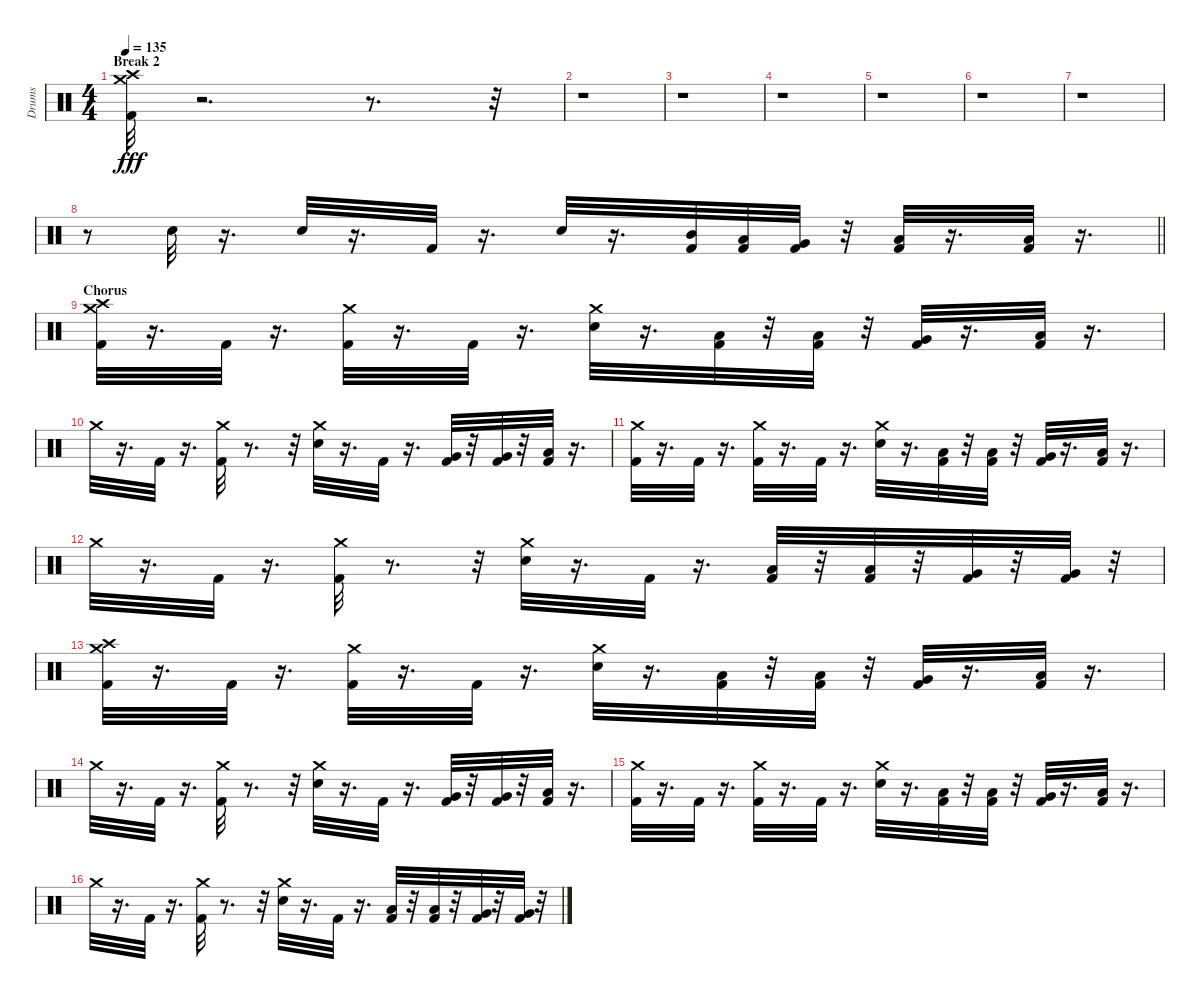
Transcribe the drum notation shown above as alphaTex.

\track ("Drums" "Drums") {instrument percussion}
\staff {score}
\articulation defaults
\ts (4 4)
\section ("" "Break 2")
\tempo 135
\clef neutral
\ks c
("Crash medium (hit)" "Crash high (hit)" "Kick (hit) 2").32{dy fff} r.2{d} r.8{d} r.32 |
r.1 |
r.1 |
r.1 |
r.1 |
r.1 |
r.1 |
\barLineRight lightlight
r.8 "Snare (hit) 2".32 r.16{d} "Snare (hit) 2".32 r.16{d} "Kick (hit) 2".32 r.16{d} "Snare (hit) 2".32 r.16{d} ("Mid Tom (hit)" "Kick (hit) 2").32 ("Low Tom (hit)" "Kick (hit) 2").32 ("Very Low Tom (hit)" "Kick (hit) 2").32 r.32 ("Low Floor Tom (hit)" "Kick (hit) 2").32 r.16{d} ("Low Floor Tom (hit)" "Kick (hit) 2").32 r.16{d} |
\section ("" "Chorus")
("Crash medium (hit)" "Crash high (hit)" "Kick (hit) 2").32 r.16{d} "Kick (hit) 2".32 r.16{d} ("Crash medium (hit)" "Kick (hit) 2").32 r.16{d} "Kick (hit) 2".32 r.16{d} ("Crash medium (hit)" "Snare (hit) 2").32 r.16{d} ("Low Tom (hit)" "Kick (hit) 2").32 r.32 ("Low Tom (hit)" "Kick (hit) 2").32 r.32 ("Very Low Tom (hit)" "Kick (hit) 2").32 r.16{d} ("Low Floor Tom (hit)" "Kick (hit) 2").32 r.16{d} |
"Crash medium (hit)".32 r.16{d} "Kick (hit) 2".32 r.16{d} ("Crash medium (hit)" "Kick (hit) 2").32 r.8{d} r.32 ("Crash medium (hit)" "Snare (hit) 2").32 r.16{d} "Kick (hit) 2".32 r.16{d} ("Very Low Tom (hit)" "Kick (hit) 2").32 r.32 ("Very Low Tom (hit)" "Kick (hit) 2").32 r.32 ("Low Floor Tom (hit)" "Kick (hit) 2").32 r.16{d} |
("Crash medium (hit)" "Kick (hit) 2").32 r.16{d} "Kick (hit) 2".32 r.16{d} ("Crash medium (hit)" "Kick (hit) 2").32 r.16{d} "Kick (hit) 2".32 r.16{d} ("Crash medium (hit)" "Snare (hit) 2").32 r.16{d} ("Low Tom (hit)" "Kick (hit) 2").32 r.32 ("Low Tom (hit)" "Kick (hit) 2").32 r.32 ("Very Low Tom (hit)" "Kick (hit) 2").32 r.16{d} ("Low Floor Tom (hit)" "Kick (hit) 2").32 r.16{d} |
"Crash medium (hit)".32 r.16{d} "Kick (hit) 2".32 r.16{d} ("Crash medium (hit)" "Kick (hit) 2").32 r.8{d} r.32 ("Crash medium (hit)" "Snare (hit) 2").32 r.16{d} "Kick (hit) 2".32 r.16{d} ("Low Tom (hit)" "Kick (hit) 2").32 r.32 ("Low Tom (hit)" "Kick (hit) 2").32 r.32 ("Very Low Tom (hit)" "Kick (hit) 2").32 r.32 ("Very Low Tom (hit)" "Kick (hit) 2").32 r.32 |
("Crash medium (hit)" "Crash high (hit)" "Kick (hit) 2").32 r.16{d} "Kick (hit) 2".32 r.16{d} ("Crash medium (hit)" "Kick (hit) 2").32 r.16{d} "Kick (hit) 2".32 r.16{d} ("Crash medium (hit)" "Snare (hit) 2").32 r.16{d} ("Low Tom (hit)" "Kick (hit) 2").32 r.32 ("Low Tom (hit)" "Kick (hit) 2").32 r.32 ("Very Low Tom (hit)" "Kick (hit) 2").32 r.16{d} ("Low Floor Tom (hit)" "Kick (hit) 2").32 r.16{d} |
"Crash medium (hit)".32 r.16{d} "Kick (hit) 2".32 r.16{d} ("Crash medium (hit)" "Kick (hit) 2").32 r.8{d} r.32 ("Crash medium (hit)" "Snare (hit) 2").32 r.16{d} "Kick (hit) 2".32 r.16{d} ("Very Low Tom (hit)" "Kick (hit) 2").32 r.32 ("Very Low Tom (hit)" "Kick (hit) 2").32 r.32 ("Low Floor Tom (hit)" "Kick (hit) 2").32 r.16{d} |
("Crash medium (hit)" "Kick (hit) 2").32 r.16{d} "Kick (hit) 2".32 r.16{d} ("Crash medium (hit)" "Kick (hit) 2").32 r.16{d} "Kick (hit) 2".32 r.16{d} ("Crash medium (hit)" "Snare (hit) 2").32 r.16{d} ("Low Tom (hit)" "Kick (hit) 2").32 r.32 ("Low Tom (hit)" "Kick (hit) 2").32 r.32 ("Very Low Tom (hit)" "Kick (hit) 2").32 r.16{d} ("Low Floor Tom (hit)" "Kick (hit) 2").32 r.16{d} |
"Crash medium (hit)".32 r.16{d} "Kick (hit) 2".32 r.16{d} ("Crash medium (hit)" "Kick (hit) 2").32 r.8{d} r.32 ("Crash medium (hit)" "Snare (hit) 2").32 r.16{d} "Kick (hit) 2".32 r.16{d} ("Low Tom (hit)" "Kick (hit) 2").32 r.32 ("Low Tom (hit)" "Kick (hit) 2").32 r.32 ("Very Low Tom (hit)" "Kick (hit) 2").32 r.32 ("Very Low Tom (hit)" "Kick (hit) 2").32 r.32
